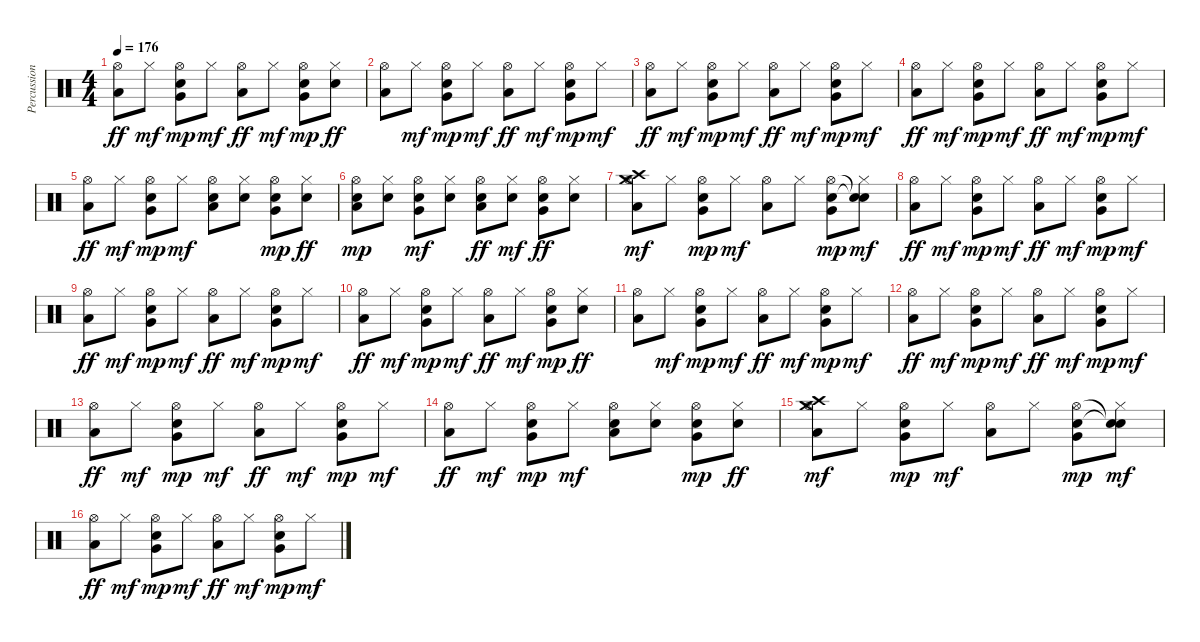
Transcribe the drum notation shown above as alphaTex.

\track ("Percussions" "Percussion") {instrument percussion}
\staff {score}
\articulation defaults
\ts (4 4)
\tempo 176
\clef neutral
\ks c
("Hi-Hat (open)" "Low Floor Tom (hit)").8{dy ff} "Hi-Hat (closed)".8{dy mf} ("Hi-Hat (open)" "Electric Snare (hit)" "Very Low Tom (hit)").8{dy mp} "Hi-Hat (closed)".8{dy mf} ("Hi-Hat (open)" "Low Floor Tom (hit)").8{dy ff} "Hi-Hat (closed)".8{dy mf} ("Hi-Hat (open)" "Very Low Tom (hit)" "Electric Snare (hit)").8{dy mp} ("Hi-Hat (closed)" "Electric Snare (hit)").8{dy ff} |
("Hi-Hat (open)" "Low Floor Tom (hit)").8 "Hi-Hat (closed)".8{dy mf} ("Hi-Hat (open)" "Electric Snare (hit)" "Very Low Tom (hit)").8{dy mp} "Hi-Hat (closed)".8{dy mf} ("Hi-Hat (open)" "Low Floor Tom (hit)").8{dy ff} "Hi-Hat (closed)".8{dy mf} ("Hi-Hat (open)" "Electric Snare (hit)" "Very Low Tom (hit)").8{dy mp} "Hi-Hat (closed)".8{dy mf} |
("Hi-Hat (open)" "Low Floor Tom (hit)").8{dy ff} "Hi-Hat (closed)".8{dy mf} ("Hi-Hat (open)" "Electric Snare (hit)" "Very Low Tom (hit)").8{dy mp} "Hi-Hat (closed)".8{dy mf} ("Hi-Hat (open)" "Low Floor Tom (hit)").8{dy ff} "Hi-Hat (closed)".8{dy mf} ("Hi-Hat (open)" "Electric Snare (hit)" "Very Low Tom (hit)").8{dy mp} "Hi-Hat (closed)".8{dy mf} |
("Hi-Hat (open)" "Low Floor Tom (hit)").8{dy ff} "Hi-Hat (closed)".8{dy mf} ("Hi-Hat (open)" "Electric Snare (hit)" "Very Low Tom (hit)").8{dy mp} "Hi-Hat (closed)".8{dy mf} ("Hi-Hat (open)" "Low Floor Tom (hit)").8{dy ff} "Hi-Hat (closed)".8{dy mf} ("Hi-Hat (open)" "Electric Snare (hit)" "Very Low Tom (hit)").8{dy mp} "Hi-Hat (closed)".8{dy mf} |
("Hi-Hat (open)" "Low Floor Tom (hit)").8{dy ff} "Hi-Hat (closed)".8{dy mf} ("Hi-Hat (open)" "Electric Snare (hit)" "Very Low Tom (hit)").8{dy mp} "Hi-Hat (closed)".8{dy mf} ("Hi-Hat (open)" "Low Floor Tom (hit)" "Electric Snare (hit)").8 ("Hi-Hat (closed)" "Electric Snare (hit)").8 ("Hi-Hat (open)" "Very Low Tom (hit)" "Electric Snare (hit)").8{dy mp} ("Hi-Hat (closed)" "Electric Snare (hit)").8{dy ff} |
("Hi-Hat (open)" "Low Floor Tom (hit)" "Electric Snare (hit)").8{dy mp} ("Hi-Hat (closed)" "Electric Snare (hit)").8 ("Hi-Hat (open)" "Very Low Tom (hit)" "Electric Snare (hit)").8{dy mf} ("Hi-Hat (closed)" "Electric Snare (hit)").8 ("Hi-Hat (open)" "Low Floor Tom (hit)" "Electric Snare (hit)").8{dy ff} ("Hi-Hat (closed)" "Electric Snare (hit)").8{dy mf} ("Hi-Hat (open)" "Very Low Tom (hit)" "Electric Snare (hit)").8{dy ff} ("Hi-Hat (closed)" "Electric Snare (hit)").8 |
("Crash high (hit)" "Crash medium (hit)" "Hi-Hat (open)" "Low Floor Tom (hit)").8{dy mf} "Hi-Hat (closed)".8 ("Hi-Hat (open)" "Electric Snare (hit)" "Very Low Tom (hit)").8{dy mp} "Hi-Hat (closed)".8{dy mf} ("Hi-Hat (open)" "Low Floor Tom (hit)").8 "Hi-Hat (closed)".8 ("Hi-Hat (open)" "Electric Snare (hit)" "Very Low Tom (hit)").8{dy mp} ("Snare (hit)"{t} "Snare (hit)"{t} "Hi-Hat (closed)").8{dy mf} |
("Hi-Hat (open)" "Low Floor Tom (hit)").8{dy ff} "Hi-Hat (closed)".8{dy mf} ("Hi-Hat (open)" "Electric Snare (hit)" "Very Low Tom (hit)").8{dy mp} "Hi-Hat (closed)".8{dy mf} ("Hi-Hat (open)" "Low Floor Tom (hit)").8{dy ff} "Hi-Hat (closed)".8{dy mf} ("Hi-Hat (open)" "Electric Snare (hit)" "Very Low Tom (hit)").8{dy mp} "Hi-Hat (closed)".8{dy mf} |
("Hi-Hat (open)" "Low Floor Tom (hit)").8{dy ff} "Hi-Hat (closed)".8{dy mf} ("Hi-Hat (open)" "Electric Snare (hit)" "Very Low Tom (hit)").8{dy mp} "Hi-Hat (closed)".8{dy mf} ("Hi-Hat (open)" "Low Floor Tom (hit)").8{dy ff} "Hi-Hat (closed)".8{dy mf} ("Hi-Hat (open)" "Electric Snare (hit)" "Very Low Tom (hit)").8{dy mp} "Hi-Hat (closed)".8{dy mf} |
("Hi-Hat (open)" "Low Floor Tom (hit)").8{dy ff} "Hi-Hat (closed)".8{dy mf} ("Hi-Hat (open)" "Electric Snare (hit)" "Very Low Tom (hit)").8{dy mp} "Hi-Hat (closed)".8{dy mf} ("Hi-Hat (open)" "Low Floor Tom (hit)").8{dy ff} "Hi-Hat (closed)".8{dy mf} ("Hi-Hat (open)" "Very Low Tom (hit)" "Electric Snare (hit)").8{dy mp} ("Hi-Hat (closed)" "Electric Snare (hit)").8{dy ff} |
("Hi-Hat (open)" "Low Floor Tom (hit)").8 "Hi-Hat (closed)".8{dy mf} ("Hi-Hat (open)" "Electric Snare (hit)" "Very Low Tom (hit)").8{dy mp} "Hi-Hat (closed)".8{dy mf} ("Hi-Hat (open)" "Low Floor Tom (hit)").8{dy ff} "Hi-Hat (closed)".8{dy mf} ("Hi-Hat (open)" "Electric Snare (hit)" "Very Low Tom (hit)").8{dy mp} "Hi-Hat (closed)".8{dy mf} |
("Hi-Hat (open)" "Low Floor Tom (hit)").8{dy ff} "Hi-Hat (closed)".8{dy mf} ("Hi-Hat (open)" "Electric Snare (hit)" "Very Low Tom (hit)").8{dy mp} "Hi-Hat (closed)".8{dy mf} ("Hi-Hat (open)" "Low Floor Tom (hit)").8{dy ff} "Hi-Hat (closed)".8{dy mf} ("Hi-Hat (open)" "Electric Snare (hit)" "Very Low Tom (hit)").8{dy mp} "Hi-Hat (closed)".8{dy mf} |
("Hi-Hat (open)" "Low Floor Tom (hit)").8{dy ff} "Hi-Hat (closed)".8{dy mf} ("Hi-Hat (open)" "Electric Snare (hit)" "Very Low Tom (hit)").8{dy mp} "Hi-Hat (closed)".8{dy mf} ("Hi-Hat (open)" "Low Floor Tom (hit)").8{dy ff} "Hi-Hat (closed)".8{dy mf} ("Hi-Hat (open)" "Electric Snare (hit)" "Very Low Tom (hit)").8{dy mp} "Hi-Hat (closed)".8{dy mf} |
("Hi-Hat (open)" "Low Floor Tom (hit)").8{dy ff} "Hi-Hat (closed)".8{dy mf} ("Hi-Hat (open)" "Electric Snare (hit)" "Very Low Tom (hit)").8{dy mp} "Hi-Hat (closed)".8{dy mf} ("Hi-Hat (open)" "Low Floor Tom (hit)" "Electric Snare (hit)").8 ("Hi-Hat (closed)" "Electric Snare (hit)").8 ("Hi-Hat (open)" "Very Low Tom (hit)" "Electric Snare (hit)").8{dy mp} ("Hi-Hat (closed)" "Electric Snare (hit)").8{dy ff} |
("Crash high (hit)" "Crash medium (hit)" "Hi-Hat (open)" "Low Floor Tom (hit)").8{dy mf} "Hi-Hat (closed)".8 ("Hi-Hat (open)" "Electric Snare (hit)" "Very Low Tom (hit)").8{dy mp} "Hi-Hat (closed)".8{dy mf} ("Hi-Hat (open)" "Low Floor Tom (hit)").8 "Hi-Hat (closed)".8 ("Hi-Hat (open)" "Electric Snare (hit)" "Very Low Tom (hit)").8{dy mp} ("Snare (hit)"{t} "Snare (hit)"{t} "Hi-Hat (closed)").8{dy mf} |
("Hi-Hat (open)" "Low Floor Tom (hit)").8{dy ff} "Hi-Hat (closed)".8{dy mf} ("Hi-Hat (open)" "Electric Snare (hit)" "Very Low Tom (hit)").8{dy mp} "Hi-Hat (closed)".8{dy mf} ("Hi-Hat (open)" "Low Floor Tom (hit)").8{dy ff} "Hi-Hat (closed)".8{dy mf} ("Hi-Hat (open)" "Electric Snare (hit)" "Very Low Tom (hit)").8{dy mp} "Hi-Hat (closed)".8{dy mf}
